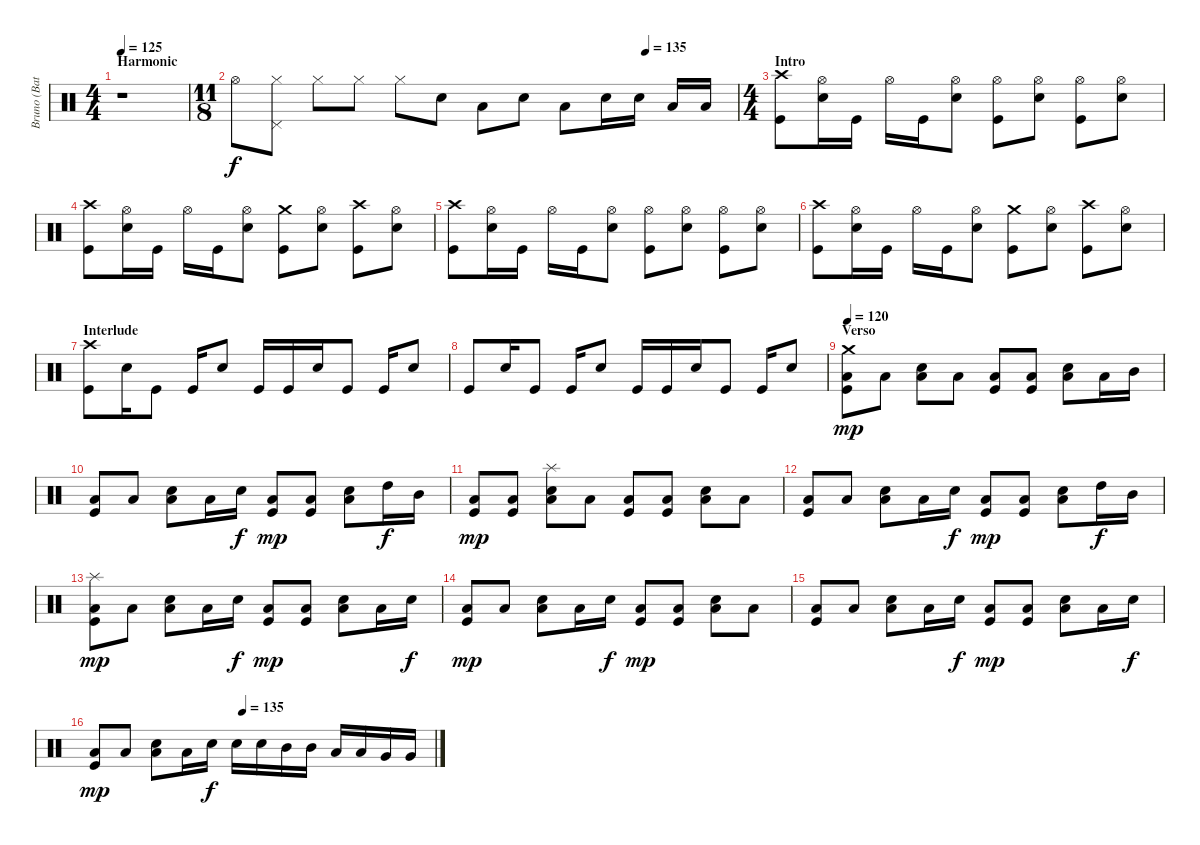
\track ("Bruno (Bateria)" "Bruno (Bat") {instrument percussion}
\staff {score}
\articulation defaults
\ts (4 4)
\section ("" "Harmonic")
\tempo 125
\tempo 128
\tempo 125
\clef neutral
\ks c
r.1{dy f} |
\ts (11 8)
\tempo (135 0.8181818181818182)
"Hi-Hat (open)".8 ("Hi-Hat (closed)" "Pedal Hi-Hat (hit)").8 "Hi-Hat (closed)".8 "Hi-Hat (closed)".8 "Hi-Hat (closed)".8 "Electric Snare (hit)".8 "Low Tom (hit)".8 "Electric Snare (hit)".8 "Low Tom (hit)".8 "Electric Snare (hit)".16 "Electric Snare (hit)".16 "Low Tom (hit)".16 "Low Tom (hit)".16 |
\ts (4 4)
\section ("" "Intro")
("Crash high (hit)" "Kick (hit)").8 ("Hi-Hat (open)" "Electric Snare (hit)").16 "Kick (hit)".16 "Hi-Hat (open)".16 "Kick (hit)".16 ("Hi-Hat (open)" "Electric Snare (hit)").8 ("Hi-Hat (open)" "Kick (hit)").8 ("Hi-Hat (open)" "Electric Snare (hit)").8 ("Hi-Hat (open)" "Kick (hit)").8 ("Hi-Hat (open)" "Electric Snare (hit)").8 |
("Crash high (hit)" "Kick (hit)").8 ("Hi-Hat (open)" "Electric Snare (hit)").16 "Kick (hit)".16 "Hi-Hat (open)".16 "Kick (hit)".16 ("Hi-Hat (open)" "Electric Snare (hit)").8 ("Crash medium (hit)" "Kick (hit)").8 ("Hi-Hat (open)" "Electric Snare (hit)").8 ("Crash high (hit)" "Kick (hit)").8 ("Hi-Hat (open)" "Electric Snare (hit)").8 |
("Crash high (hit)" "Kick (hit)").8 ("Hi-Hat (open)" "Electric Snare (hit)").16 "Kick (hit)".16 "Hi-Hat (open)".16 "Kick (hit)".16 ("Hi-Hat (open)" "Electric Snare (hit)").8 ("Hi-Hat (open)" "Kick (hit)").8 ("Hi-Hat (open)" "Electric Snare (hit)").8 ("Hi-Hat (open)" "Kick (hit)").8 ("Hi-Hat (open)" "Electric Snare (hit)").8 |
("Crash high (hit)" "Kick (hit)").8 ("Hi-Hat (open)" "Electric Snare (hit)").16 "Kick (hit)".16 "Hi-Hat (open)".16 "Kick (hit)".16 ("Hi-Hat (open)" "Electric Snare (hit)").8 ("Crash medium (hit)" "Kick (hit)").8 ("Hi-Hat (open)" "Electric Snare (hit)").8 ("Crash high (hit)" "Kick (hit)").8 ("Hi-Hat (open)" "Electric Snare (hit)").8 |
\section ("" "Interlude")
("Crash high (hit)" "Kick (hit)").8 "Electric Snare (hit)".16 "Kick (hit)".8 "Kick (hit)".16 "Electric Snare (hit)".8 "Kick (hit)".16 "Kick (hit)".16 "Electric Snare (hit)".16 "Kick (hit)".8 "Kick (hit)".16 "Electric Snare (hit)".8 |
"Kick (hit)".8 "Electric Snare (hit)".16 "Kick (hit)".8 "Kick (hit)".16 "Electric Snare (hit)".8 "Kick (hit)".16 "Kick (hit)".16 "Electric Snare (hit)".16 "Kick (hit)".8 "Kick (hit)".16 "Electric Snare (hit)".8 |
\section ("" "Verso")
\tempo 120
("Crash medium (hit)" "Low Tom (hit)" "Kick (hit)").8{dy mp} "Low Tom (hit)".8 ("Electric Snare (hit)" "Low Tom (hit)").8 "Low Tom (hit)".8 ("Low Tom (hit)" "Kick (hit)").8 ("Low Tom (hit)" "Kick (hit)").8 ("Electric Snare (hit)" "Low Tom (hit)").8 "Low Tom (hit)".16 "Mid Tom (hit)".16 |
("Low Tom (hit)" "Kick (hit)").8 "Low Tom (hit)".8 ("Electric Snare (hit)" "Low Tom (hit)").8 "Low Tom (hit)".16 "Electric Snare (hit)".16{dy f} ("Low Tom (hit)" "Kick (hit)").8{dy mp} ("Low Tom (hit)" "Kick (hit)").8 ("Electric Snare (hit)" "Low Tom (hit)").8 "High Tom (hit)".16{dy f} "Mid Tom (hit)".16 |
("Low Tom (hit)" "Kick (hit)").8{dy mp} ("Low Tom (hit)" "Kick (hit)").8 ("Splash (hit)" "Electric Snare (hit)" "Low Tom (hit)").8 "Low Tom (hit)".8 ("Low Tom (hit)" "Kick (hit)").8 ("Low Tom (hit)" "Kick (hit)").8 ("Electric Snare (hit)" "Low Tom (hit)").8 "Low Tom (hit)".8 |
("Low Tom (hit)" "Kick (hit)").8 "Low Tom (hit)".8 ("Electric Snare (hit)" "Low Tom (hit)").8 "Low Tom (hit)".16 "Electric Snare (hit)".16{dy f} ("Low Tom (hit)" "Kick (hit)").8{dy mp} ("Low Tom (hit)" "Kick (hit)").8 ("Electric Snare (hit)" "Low Tom (hit)").8 "High Tom (hit)".16{dy f} "Mid Tom (hit)".16 |
("Splash (hit)" "Low Tom (hit)" "Kick (hit)").8{dy mp} "Low Tom (hit)".8 ("Electric Snare (hit)" "Low Tom (hit)").8 "Low Tom (hit)".16 "Electric Snare (hit)".16{dy f} ("Low Tom (hit)" "Kick (hit)").8{dy mp} ("Low Tom (hit)" "Kick (hit)").8 ("Electric Snare (hit)" "Low Tom (hit)").8 "Low Tom (hit)".16 "Electric Snare (hit)".16{dy f} |
("Low Tom (hit)" "Kick (hit)").8{dy mp} "Low Tom (hit)".8 ("Electric Snare (hit)" "Low Tom (hit)").8 "Low Tom (hit)".16 "Electric Snare (hit)".16{dy f} ("Low Tom (hit)" "Kick (hit)").8{dy mp} ("Low Tom (hit)" "Kick (hit)").8 ("Electric Snare (hit)" "Low Tom (hit)").8 "Low Tom (hit)".8 |
("Low Tom (hit)" "Kick (hit)").8 "Low Tom (hit)".8 ("Electric Snare (hit)" "Low Tom (hit)").8 "Low Tom (hit)".16 "Electric Snare (hit)".16{dy f} ("Low Tom (hit)" "Kick (hit)").8{dy mp} ("Low Tom (hit)" "Kick (hit)").8 ("Electric Snare (hit)" "Low Tom (hit)").8 "Low Tom (hit)".16 "Electric Snare (hit)".16{dy f} |
\tempo (135 0.4375)
("Low Tom (hit)" "Kick (hit)").8{dy mp} "Low Tom (hit)".8 ("Electric Snare (hit)" "Low Tom (hit)").8 "Low Tom (hit)".16 "Electric Snare (hit)".16{dy f} "Electric Snare (hit)".16 "Electric Snare (hit)".16 "Mid Tom (hit)".16 "Mid Tom (hit)".16 "Low Tom (hit)".16 "Low Tom (hit)".16 "Very Low Tom (hit)".16 "Very Low Tom (hit)".16
